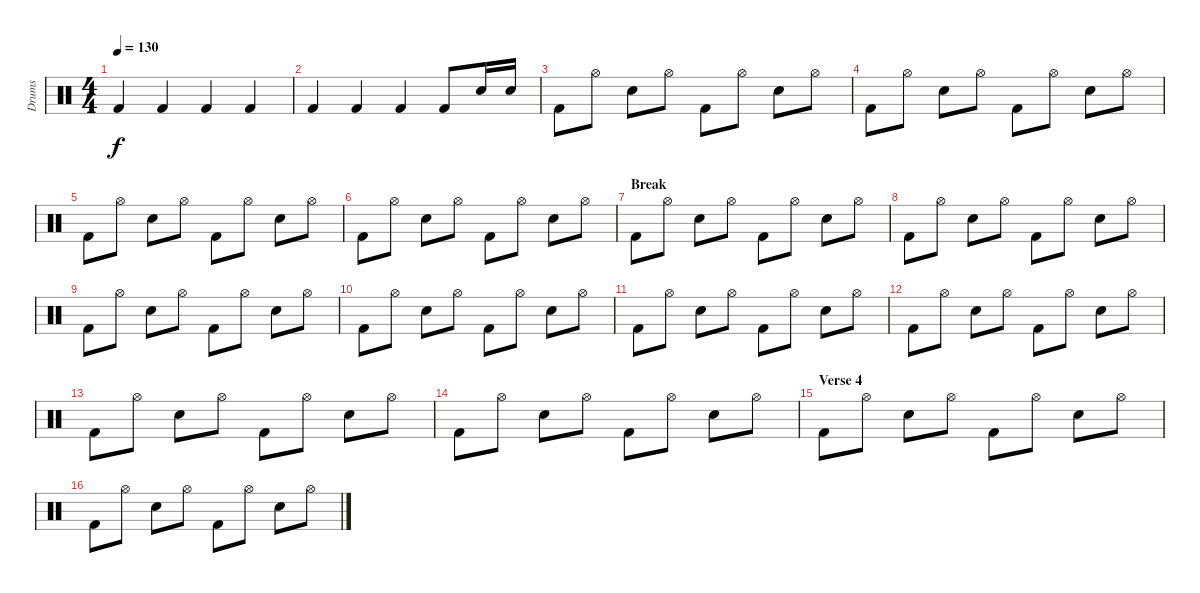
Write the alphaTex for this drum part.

\track ("Drums" "Drums") {instrument percussion}
\staff {score}
\articulation defaults
\ts (4 4)
\tempo 130
\clef neutral
\ks c "Kick (hit) 2".4{dy f} "Kick (hit) 2".4 "Kick (hit) 2".4 "Kick (hit) 2".4
|
"Kick (hit) 2".4 "Kick (hit) 2".4 "Kick (hit) 2".4 "Kick (hit) 2".8 "Snare (hit) 2".16 "Snare (hit) 2".16 |
"Kick (hit) 2".8 "Hi-Hat (open)".8 "Snare (hit) 2".8 "Hi-Hat (open)".8 "Kick (hit) 2".8 "Hi-Hat (open)".8 "Snare (hit) 2".8 "Hi-Hat (open)".8 |
"Kick (hit) 2".8 "Hi-Hat (open)".8 "Snare (hit) 2".8 "Hi-Hat (open)".8 "Kick (hit) 2".8 "Hi-Hat (open)".8 "Snare (hit) 2".8 "Hi-Hat (open)".8 |
"Kick (hit) 2".8 "Hi-Hat (open)".8 "Snare (hit) 2".8 "Hi-Hat (open)".8 "Kick (hit) 2".8 "Hi-Hat (open)".8 "Snare (hit) 2".8 "Hi-Hat (open)".8 |
"Kick (hit) 2".8 "Hi-Hat (open)".8 "Snare (hit) 2".8 "Hi-Hat (open)".8 "Kick (hit) 2".8 "Hi-Hat (open)".8 "Snare (hit) 2".8 "Hi-Hat (open)".8 |
\section ("" "Break")
"Kick (hit) 2".8 "Hi-Hat (open)".8 "Snare (hit) 2".8 "Hi-Hat (open)".8 "Kick (hit) 2".8 "Hi-Hat (open)".8 "Snare (hit) 2".8 "Hi-Hat (open)".8 |
"Kick (hit) 2".8 "Hi-Hat (open)".8 "Snare (hit) 2".8 "Hi-Hat (open)".8 "Kick (hit) 2".8 "Hi-Hat (open)".8 "Snare (hit) 2".8 "Hi-Hat (open)".8 |
"Kick (hit) 2".8 "Hi-Hat (open)".8 "Snare (hit) 2".8 "Hi-Hat (open)".8 "Kick (hit) 2".8 "Hi-Hat (open)".8 "Snare (hit) 2".8 "Hi-Hat (open)".8 |
"Kick (hit) 2".8 "Hi-Hat (open)".8 "Snare (hit) 2".8 "Hi-Hat (open)".8 "Kick (hit) 2".8 "Hi-Hat (open)".8 "Snare (hit) 2".8 "Hi-Hat (open)".8 |
"Kick (hit) 2".8 "Hi-Hat (open)".8 "Snare (hit) 2".8 "Hi-Hat (open)".8 "Kick (hit) 2".8 "Hi-Hat (open)".8 "Snare (hit) 2".8 "Hi-Hat (open)".8 |
"Kick (hit) 2".8 "Hi-Hat (open)".8 "Snare (hit) 2".8 "Hi-Hat (open)".8 "Kick (hit) 2".8 "Hi-Hat (open)".8 "Snare (hit) 2".8 "Hi-Hat (open)".8 |
"Kick (hit) 2".8 "Hi-Hat (open)".8 "Snare (hit) 2".8 "Hi-Hat (open)".8 "Kick (hit) 2".8 "Hi-Hat (open)".8 "Snare (hit) 2".8 "Hi-Hat (open)".8 |
"Kick (hit) 2".8 "Hi-Hat (open)".8 "Snare (hit) 2".8 "Hi-Hat (open)".8 "Kick (hit) 2".8 "Hi-Hat (open)".8 "Snare (hit) 2".8 "Hi-Hat (open)".8 |
\section ("" "Verse 4")
"Kick (hit) 2".8 "Hi-Hat (open)".8 "Snare (hit) 2".8 "Hi-Hat (open)".8 "Kick (hit) 2".8 "Hi-Hat (open)".8 "Snare (hit) 2".8 "Hi-Hat (open)".8 |
"Kick (hit) 2".8 "Hi-Hat (open)".8 "Snare (hit) 2".8 "Hi-Hat (open)".8 "Kick (hit) 2".8 "Hi-Hat (open)".8 "Snare (hit) 2".8 "Hi-Hat (open)".8
